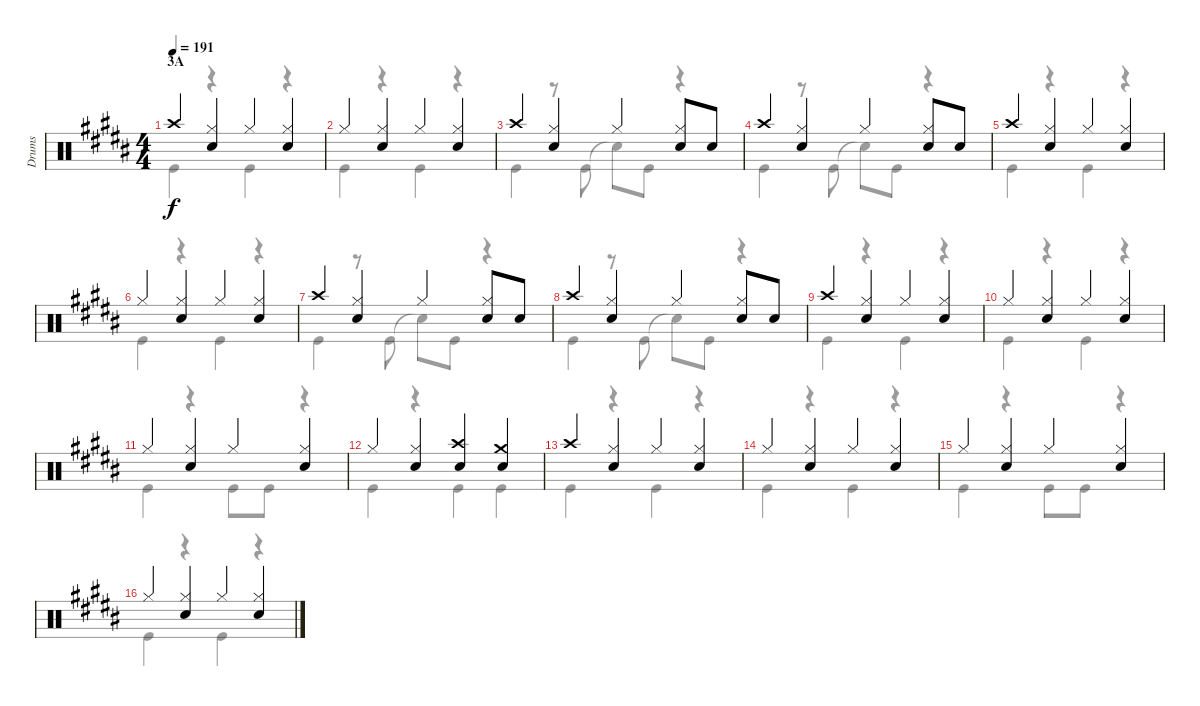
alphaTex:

\track ("Drums" "Drums") {instrument percussion}
\staff {score}
\articulation defaults
\voice
\ts (4 4)
\section ("" "3A")
\tempo 191
\clef neutral
\ks b "Crash high (hit)".4{dy f}
("Hi-Hat (closed)" "Snare (hit) 2").4 "Hi-Hat (closed)".4 ("Hi-Hat (closed)" "Snare (hit) 2").4 |
"Hi-Hat (closed)".4 ("Hi-Hat (closed)" "Snare (hit) 2").4 "Hi-Hat (closed)".4 ("Hi-Hat (closed)" "Snare (hit) 2").4 |
"Crash high (hit)".4 ("Hi-Hat (closed)" "Snare (hit) 2").4 "Hi-Hat (closed)".4 ("Hi-Hat (closed)" "Snare (hit) 2").8 "Snare (hit) 2".8 |
"Crash high (hit)".4 ("Hi-Hat (closed)" "Snare (hit) 2").4 "Hi-Hat (closed)".4 ("Hi-Hat (closed)" "Snare (hit) 2").8 "Snare (hit) 2".8 |
"Crash high (hit)".4 ("Hi-Hat (closed)" "Snare (hit) 2").4 "Hi-Hat (closed)".4 ("Hi-Hat (closed)" "Snare (hit) 2").4 |
"Hi-Hat (closed)".4 ("Hi-Hat (closed)" "Snare (hit) 2").4 "Hi-Hat (closed)".4 ("Hi-Hat (closed)" "Snare (hit) 2").4 |
"Crash high (hit)".4 ("Hi-Hat (closed)" "Snare (hit) 2").4 "Hi-Hat (closed)".4 ("Hi-Hat (closed)" "Snare (hit) 2").8 "Snare (hit) 2".8 |
"Crash high (hit)".4 ("Hi-Hat (closed)" "Snare (hit) 2").4 "Hi-Hat (closed)".4 ("Hi-Hat (closed)" "Snare (hit) 2").8 "Snare (hit) 2".8 |
"Crash high (hit)".4 ("Hi-Hat (closed)" "Snare (hit) 2").4 "Hi-Hat (closed)".4 ("Hi-Hat (closed)" "Snare (hit) 2").4 |
"Hi-Hat (closed)".4 ("Hi-Hat (closed)" "Snare (hit) 2").4 "Hi-Hat (closed)".4 ("Hi-Hat (closed)" "Snare (hit) 2").4 |
"Hi-Hat (closed)".4 ("Hi-Hat (closed)" "Snare (hit) 2").4 "Hi-Hat (closed)".4 ("Hi-Hat (closed)" "Snare (hit) 2").4 |
"Hi-Hat (closed)".4 ("Hi-Hat (closed)" "Snare (hit) 2").4 ("Crash high (hit)" "Snare (hit) 2").4 ("Crash medium (hit)" "Snare (hit) 2").4 |
"Crash high (hit)".4 ("Hi-Hat (closed)" "Snare (hit) 2").4 "Hi-Hat (closed)".4 ("Hi-Hat (closed)" "Snare (hit) 2").4 |
"Hi-Hat (closed)".4 ("Hi-Hat (closed)" "Snare (hit) 2").4 "Hi-Hat (closed)".4 ("Hi-Hat (closed)" "Snare (hit) 2").4 |
"Hi-Hat (closed)".4 ("Hi-Hat (closed)" "Snare (hit) 2").4 "Hi-Hat (closed)".4 ("Hi-Hat (closed)" "Snare (hit) 2").4 |
"Hi-Hat (closed)".4 ("Hi-Hat (closed)" "Snare (hit) 2").4 "Hi-Hat (closed)".4 ("Hi-Hat (closed)" "Snare (hit) 2").4
\voice
\clef neutral
\ottava regular
\simile none
\ks b "Kick (hit)".4{dy f}
r.4 "Kick (hit)".4 r.4 |
"Kick (hit)".4 r.4 "Kick (hit)".4 r.4 |
"Kick (hit)".4 r.8 "Kick (hit)".8 "Snare (hit)"{t}.8 "Kick (hit)".8 r.4 |
"Kick (hit)".4 r.8 "Kick (hit)".8 "Snare (hit)"{t}.8 "Kick (hit)".8 r.4 |
"Kick (hit)".4 r.4 "Kick (hit)".4 r.4 |
"Kick (hit)".4 r.4 "Kick (hit)".4 r.4 |
"Kick (hit)".4 r.8 "Kick (hit)".8 "Snare (hit)"{t}.8 "Kick (hit)".8 r.4 |
"Kick (hit)".4 r.8 "Kick (hit)".8 "Snare (hit)"{t}.8 "Kick (hit)".8 r.4 |
"Kick (hit)".4 r.4 "Kick (hit)".4 r.4 |
"Kick (hit)".4 r.4 "Kick (hit)".4 r.4 |
"Kick (hit)".4 r.4 "Kick (hit)".8 "Kick (hit)".8 r.4 |
"Kick (hit)".4 r.4 "Kick (hit)".4 "Kick (hit)".4 |
"Kick (hit)".4 r.4 "Kick (hit)".4 r.4 |
"Kick (hit)".4 r.4 "Kick (hit)".4 r.4 |
"Kick (hit)".4 r.4 "Kick (hit)".8 "Kick (hit)".8 r.4 |
"Kick (hit)".4 r.4 "Kick (hit)".4 r.4
